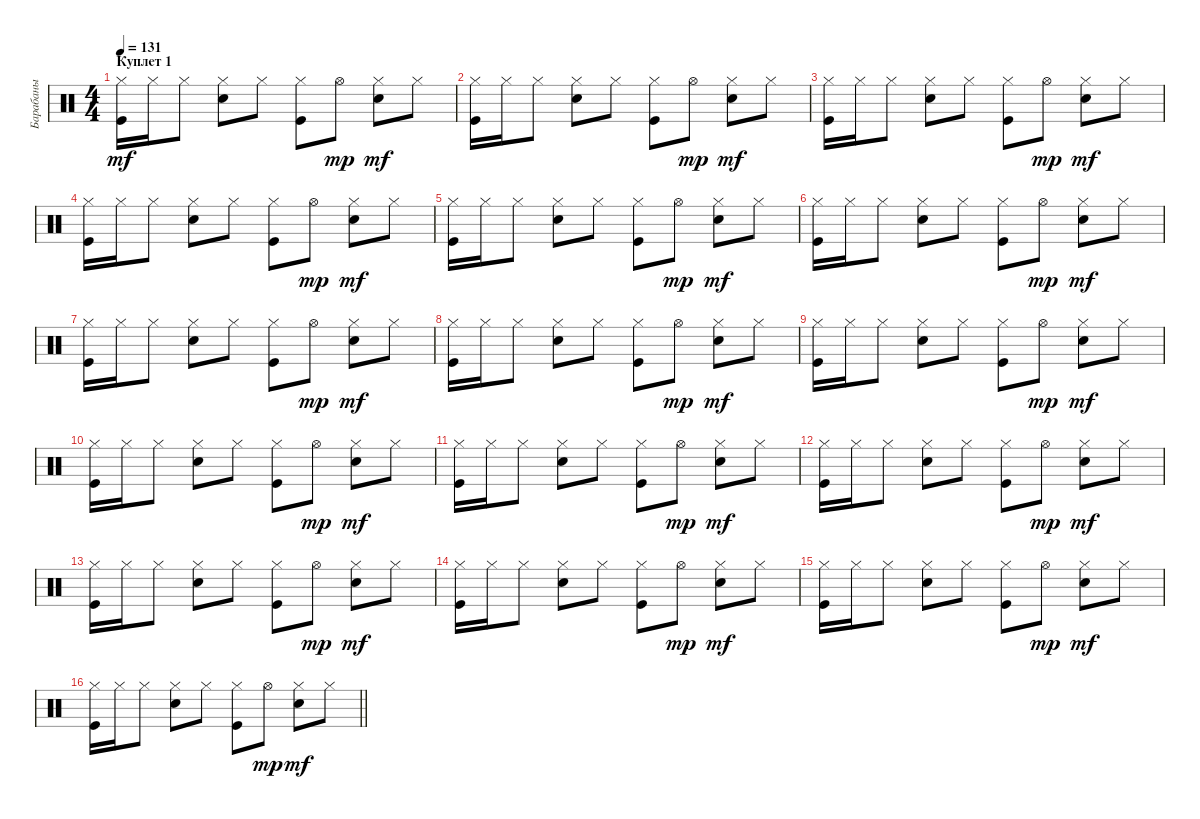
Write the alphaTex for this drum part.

\track ("Барабаны" "Барабаны") {instrument percussion}
\staff {score}
\articulation defaults
\ts (4 4)
\section ("" "Куплет 1")
\tempo 131
\clef neutral
\ks c
("Kick (hit)" "Hi-Hat (closed)").16{dy mf} "Hi-Hat (closed)".16 "Hi-Hat (closed)".8 ("Snare (hit) 2" "Hi-Hat (closed)").8 "Hi-Hat (closed)".8 ("Kick (hit)" "Hi-Hat (closed)").8 "Hi-Hat (open)".8{dy mp} ("Snare (hit) 2" "Hi-Hat (closed)").8{dy mf} "Hi-Hat (closed)".8 |
("Kick (hit)" "Hi-Hat (closed)").16 "Hi-Hat (closed)".16 "Hi-Hat (closed)".8 ("Snare (hit) 2" "Hi-Hat (closed)").8 "Hi-Hat (closed)".8 ("Kick (hit)" "Hi-Hat (closed)").8 "Hi-Hat (open)".8{dy mp} ("Snare (hit) 2" "Hi-Hat (closed)").8{dy mf} "Hi-Hat (closed)".8 |
("Kick (hit)" "Hi-Hat (closed)").16 "Hi-Hat (closed)".16 "Hi-Hat (closed)".8 ("Snare (hit) 2" "Hi-Hat (closed)").8 "Hi-Hat (closed)".8 ("Kick (hit)" "Hi-Hat (closed)").8 "Hi-Hat (open)".8{dy mp} ("Snare (hit) 2" "Hi-Hat (closed)").8{dy mf} "Hi-Hat (closed)".8 |
("Kick (hit)" "Hi-Hat (closed)").16 "Hi-Hat (closed)".16 "Hi-Hat (closed)".8 ("Snare (hit) 2" "Hi-Hat (closed)").8 "Hi-Hat (closed)".8 ("Kick (hit)" "Hi-Hat (closed)").8 "Hi-Hat (open)".8{dy mp} ("Snare (hit) 2" "Hi-Hat (closed)").8{dy mf} "Hi-Hat (closed)".8 |
("Kick (hit)" "Hi-Hat (closed)").16 "Hi-Hat (closed)".16 "Hi-Hat (closed)".8 ("Snare (hit) 2" "Hi-Hat (closed)").8 "Hi-Hat (closed)".8 ("Kick (hit)" "Hi-Hat (closed)").8 "Hi-Hat (open)".8{dy mp} ("Snare (hit) 2" "Hi-Hat (closed)").8{dy mf} "Hi-Hat (closed)".8 |
("Kick (hit)" "Hi-Hat (closed)").16 "Hi-Hat (closed)".16 "Hi-Hat (closed)".8 ("Snare (hit) 2" "Hi-Hat (closed)").8 "Hi-Hat (closed)".8 ("Kick (hit)" "Hi-Hat (closed)").8 "Hi-Hat (open)".8{dy mp} ("Snare (hit) 2" "Hi-Hat (closed)").8{dy mf} "Hi-Hat (closed)".8 |
("Kick (hit)" "Hi-Hat (closed)").16 "Hi-Hat (closed)".16 "Hi-Hat (closed)".8 ("Snare (hit) 2" "Hi-Hat (closed)").8 "Hi-Hat (closed)".8 ("Kick (hit)" "Hi-Hat (closed)").8 "Hi-Hat (open)".8{dy mp} ("Snare (hit) 2" "Hi-Hat (closed)").8{dy mf} "Hi-Hat (closed)".8 |
("Kick (hit)" "Hi-Hat (closed)").16 "Hi-Hat (closed)".16 "Hi-Hat (closed)".8 ("Snare (hit) 2" "Hi-Hat (closed)").8 "Hi-Hat (closed)".8 ("Kick (hit)" "Hi-Hat (closed)").8 "Hi-Hat (open)".8{dy mp} ("Snare (hit) 2" "Hi-Hat (closed)").8{dy mf} "Hi-Hat (closed)".8 |
("Kick (hit)" "Hi-Hat (closed)").16 "Hi-Hat (closed)".16 "Hi-Hat (closed)".8 ("Snare (hit) 2" "Hi-Hat (closed)").8 "Hi-Hat (closed)".8 ("Kick (hit)" "Hi-Hat (closed)").8 "Hi-Hat (open)".8{dy mp} ("Snare (hit) 2" "Hi-Hat (closed)").8{dy mf} "Hi-Hat (closed)".8 |
("Kick (hit)" "Hi-Hat (closed)").16 "Hi-Hat (closed)".16 "Hi-Hat (closed)".8 ("Snare (hit) 2" "Hi-Hat (closed)").8 "Hi-Hat (closed)".8 ("Kick (hit)" "Hi-Hat (closed)").8 "Hi-Hat (open)".8{dy mp} ("Snare (hit) 2" "Hi-Hat (closed)").8{dy mf} "Hi-Hat (closed)".8 |
("Kick (hit)" "Hi-Hat (closed)").16 "Hi-Hat (closed)".16 "Hi-Hat (closed)".8 ("Snare (hit) 2" "Hi-Hat (closed)").8 "Hi-Hat (closed)".8 ("Kick (hit)" "Hi-Hat (closed)").8 "Hi-Hat (open)".8{dy mp} ("Snare (hit) 2" "Hi-Hat (closed)").8{dy mf} "Hi-Hat (closed)".8 |
("Kick (hit)" "Hi-Hat (closed)").16 "Hi-Hat (closed)".16 "Hi-Hat (closed)".8 ("Snare (hit) 2" "Hi-Hat (closed)").8 "Hi-Hat (closed)".8 ("Kick (hit)" "Hi-Hat (closed)").8 "Hi-Hat (open)".8{dy mp} ("Snare (hit) 2" "Hi-Hat (closed)").8{dy mf} "Hi-Hat (closed)".8 |
("Kick (hit)" "Hi-Hat (closed)").16 "Hi-Hat (closed)".16 "Hi-Hat (closed)".8 ("Snare (hit) 2" "Hi-Hat (closed)").8 "Hi-Hat (closed)".8 ("Kick (hit)" "Hi-Hat (closed)").8 "Hi-Hat (open)".8{dy mp} ("Snare (hit) 2" "Hi-Hat (closed)").8{dy mf} "Hi-Hat (closed)".8 |
("Kick (hit)" "Hi-Hat (closed)").16 "Hi-Hat (closed)".16 "Hi-Hat (closed)".8 ("Snare (hit) 2" "Hi-Hat (closed)").8 "Hi-Hat (closed)".8 ("Kick (hit)" "Hi-Hat (closed)").8 "Hi-Hat (open)".8{dy mp} ("Snare (hit) 2" "Hi-Hat (closed)").8{dy mf} "Hi-Hat (closed)".8 |
("Kick (hit)" "Hi-Hat (closed)").16 "Hi-Hat (closed)".16 "Hi-Hat (closed)".8 ("Snare (hit) 2" "Hi-Hat (closed)").8 "Hi-Hat (closed)".8 ("Kick (hit)" "Hi-Hat (closed)").8 "Hi-Hat (open)".8{dy mp} ("Snare (hit) 2" "Hi-Hat (closed)").8{dy mf} "Hi-Hat (closed)".8 |
\barLineRight lightlight
("Kick (hit)" "Hi-Hat (closed)").16 "Hi-Hat (closed)".16 "Hi-Hat (closed)".8 ("Snare (hit) 2" "Hi-Hat (closed)").8 "Hi-Hat (closed)".8 ("Kick (hit)" "Hi-Hat (closed)").8 "Hi-Hat (open)".8{dy mp} ("Snare (hit) 2" "Hi-Hat (closed)").8{dy mf} "Hi-Hat (closed)".8
